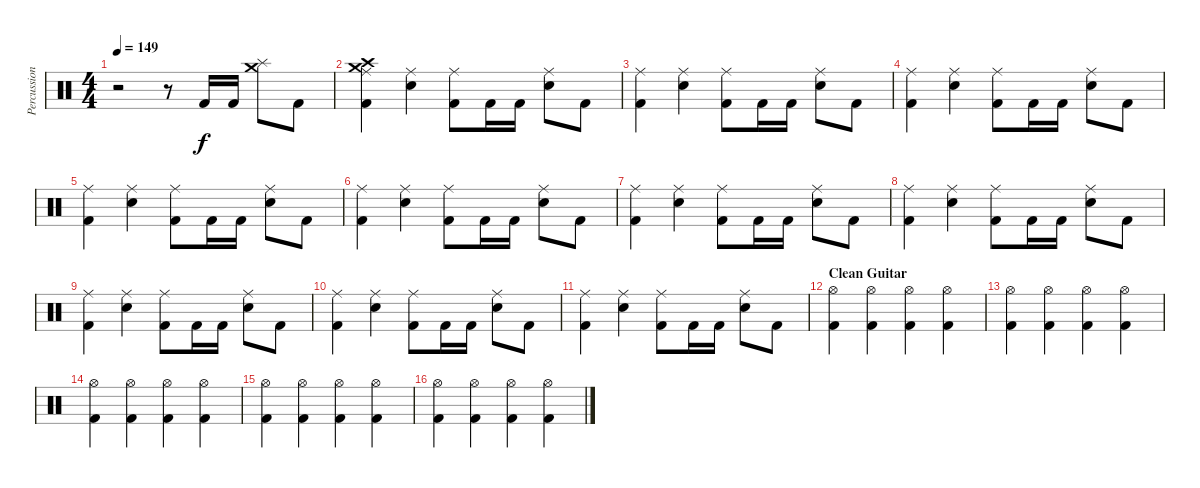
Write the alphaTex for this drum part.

\track ("Percussion" "Percussion") {instrument percussion}
\staff {score}
\articulation defaults
\ts (4 4)
\tempo 149
\clef neutral
\ks c
r.2{dy f} r.8 "Kick (hit) 2".16 "Kick (hit) 2".16 ("Crash medium (hit)" "Splash (hit)").8 "Kick (hit) 2".8 |
("Ride (middle)" "Crash medium (hit)" "Crash high (hit)" "Kick (hit) 2").4 ("Ride (middle)" "Snare (hit) 2").4 ("Ride (middle)" "Kick (hit) 2").8 "Kick (hit) 2".16 "Kick (hit) 2".16 ("Ride (middle)" "Snare (hit) 2").8 "Kick (hit) 2".8 |
("Ride (middle)" "Kick (hit) 2").4 ("Ride (middle)" "Snare (hit) 2").4 ("Ride (middle)" "Kick (hit) 2").8 "Kick (hit) 2".16 "Kick (hit) 2".16 ("Ride (middle)" "Snare (hit) 2").8 "Kick (hit) 2".8 |
("Ride (middle)" "Kick (hit) 2").4 ("Ride (middle)" "Snare (hit) 2").4 ("Ride (middle)" "Kick (hit) 2").8 "Kick (hit) 2".16 "Kick (hit) 2".16 ("Ride (middle)" "Snare (hit) 2").8 "Kick (hit) 2".8 |
("Ride (middle)" "Kick (hit) 2").4 ("Ride (middle)" "Snare (hit) 2").4 ("Ride (middle)" "Kick (hit) 2").8 "Kick (hit) 2".16 "Kick (hit) 2".16 ("Ride (middle)" "Snare (hit) 2").8 "Kick (hit) 2".8 |
("Ride (middle)" "Kick (hit) 2").4 ("Ride (middle)" "Snare (hit) 2").4 ("Ride (middle)" "Kick (hit) 2").8 "Kick (hit) 2".16 "Kick (hit) 2".16 ("Ride (middle)" "Snare (hit) 2").8 "Kick (hit) 2".8 |
("Ride (middle)" "Kick (hit) 2").4 ("Ride (middle)" "Snare (hit) 2").4 ("Ride (middle)" "Kick (hit) 2").8 "Kick (hit) 2".16 "Kick (hit) 2".16 ("Ride (middle)" "Snare (hit) 2").8 "Kick (hit) 2".8 |
("Ride (middle)" "Kick (hit) 2").4 ("Ride (middle)" "Snare (hit) 2").4 ("Ride (middle)" "Kick (hit) 2").8 "Kick (hit) 2".16 "Kick (hit) 2".16 ("Ride (middle)" "Snare (hit) 2").8 "Kick (hit) 2".8 |
("Ride (middle)" "Kick (hit) 2").4 ("Ride (middle)" "Snare (hit) 2").4 ("Ride (middle)" "Kick (hit) 2").8 "Kick (hit) 2".16 "Kick (hit) 2".16 ("Ride (middle)" "Snare (hit) 2").8 "Kick (hit) 2".8 |
("Ride (middle)" "Kick (hit) 2").4 ("Ride (middle)" "Snare (hit) 2").4 ("Ride (middle)" "Kick (hit) 2").8 "Kick (hit) 2".16 "Kick (hit) 2".16 ("Ride (middle)" "Snare (hit) 2").8 "Kick (hit) 2".8 |
("Ride (middle)" "Kick (hit) 2").4 ("Ride (middle)" "Snare (hit) 2").4 ("Ride (middle)" "Kick (hit) 2").8 "Kick (hit) 2".16 "Kick (hit) 2".16 ("Ride (middle)" "Snare (hit) 2").8 "Kick (hit) 2".8 |
\section ("" "Clean Guitar")
("Hi-Hat (open)" "Kick (hit) 2").4 ("Hi-Hat (open)" "Kick (hit) 2").4 ("Hi-Hat (open)" "Kick (hit) 2").4 ("Hi-Hat (open)" "Kick (hit) 2").4 |
("Hi-Hat (open)" "Kick (hit) 2").4 ("Hi-Hat (open)" "Kick (hit) 2").4 ("Hi-Hat (open)" "Kick (hit) 2").4 ("Hi-Hat (open)" "Kick (hit) 2").4 |
("Hi-Hat (open)" "Kick (hit) 2").4 ("Hi-Hat (open)" "Kick (hit) 2").4 ("Hi-Hat (open)" "Kick (hit) 2").4 ("Hi-Hat (open)" "Kick (hit) 2").4 |
("Hi-Hat (open)" "Kick (hit) 2").4 ("Hi-Hat (open)" "Kick (hit) 2").4 ("Hi-Hat (open)" "Kick (hit) 2").4 ("Hi-Hat (open)" "Kick (hit) 2").4 |
("Hi-Hat (open)" "Kick (hit) 2").4 ("Hi-Hat (open)" "Kick (hit) 2").4 ("Hi-Hat (open)" "Kick (hit) 2").4 ("Hi-Hat (open)" "Kick (hit) 2").4
